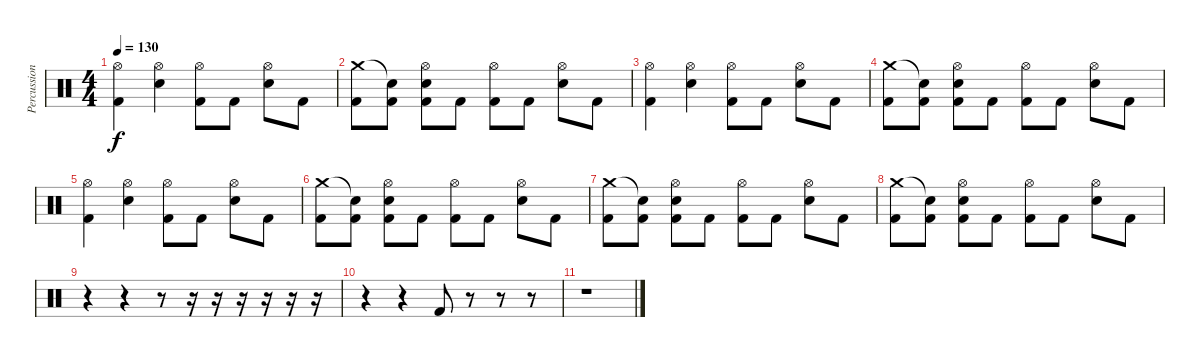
\track ("Percussion" "Percussion") {instrument percussion}
\staff {score}
\articulation defaults
\ts (4 4)
\tempo 130
\clef neutral
\ks c
("Hi-Hat (open)" "Kick (hit) 2").4{dy f} ("Hi-Hat (open)" "Electric Snare (hit)").4 ("Hi-Hat (open)" "Kick (hit) 2").8 "Kick (hit) 2".8 ("Hi-Hat (open)" "Electric Snare (hit)").8 "Kick (hit) 2".8 |
("Crash medium (hit)" "Kick (hit) 2").8 ("Snare (hit)"{t} "Kick (hit) 2").8 ("Hi-Hat (open)" "Electric Snare (hit)" "Kick (hit) 2").8 "Kick (hit) 2".8 ("Hi-Hat (open)" "Kick (hit) 2").8 "Kick (hit) 2".8 ("Hi-Hat (open)" "Electric Snare (hit)").8 "Kick (hit) 2".8 |
("Hi-Hat (open)" "Kick (hit) 2").4 ("Hi-Hat (open)" "Electric Snare (hit)").4 ("Hi-Hat (open)" "Kick (hit) 2").8 "Kick (hit) 2".8 ("Hi-Hat (open)" "Electric Snare (hit)").8 "Kick (hit) 2".8 |
("Crash medium (hit)" "Kick (hit) 2").8 ("Snare (hit)"{t} "Kick (hit) 2").8 ("Hi-Hat (open)" "Electric Snare (hit)" "Kick (hit) 2").8 "Kick (hit) 2".8 ("Hi-Hat (open)" "Kick (hit) 2").8 "Kick (hit) 2".8 ("Hi-Hat (open)" "Electric Snare (hit)").8 "Kick (hit) 2".8 |
("Hi-Hat (open)" "Kick (hit) 2").4 ("Hi-Hat (open)" "Electric Snare (hit)").4 ("Hi-Hat (open)" "Kick (hit) 2").8 "Kick (hit) 2".8 ("Hi-Hat (open)" "Electric Snare (hit)").8 "Kick (hit) 2".8 |
("Crash medium (hit)" "Kick (hit) 2").8 ("Snare (hit)"{t} "Kick (hit) 2").8 ("Hi-Hat (open)" "Electric Snare (hit)" "Kick (hit) 2").8 "Kick (hit) 2".8 ("Hi-Hat (open)" "Kick (hit) 2").8 "Kick (hit) 2".8 ("Hi-Hat (open)" "Electric Snare (hit)").8 "Kick (hit) 2".8 |
("Crash medium (hit)" "Kick (hit) 2").8 ("Snare (hit)"{t} "Kick (hit) 2").8 ("Hi-Hat (open)" "Electric Snare (hit)" "Kick (hit) 2").8 "Kick (hit) 2".8 ("Hi-Hat (open)" "Kick (hit) 2").8 "Kick (hit) 2".8 ("Hi-Hat (open)" "Electric Snare (hit)").8 "Kick (hit) 2".8 |
("Crash medium (hit)" "Kick (hit) 2").8 ("Snare (hit)"{t} "Kick (hit) 2").8 ("Hi-Hat (open)" "Electric Snare (hit)" "Kick (hit) 2").8 "Kick (hit) 2".8 ("Hi-Hat (open)" "Kick (hit) 2").8 "Kick (hit) 2".8 ("Hi-Hat (open)" "Electric Snare (hit)").8 "Kick (hit) 2".8 |
r.4 r.4 r.8 r.16 r.16 r.16 r.16 r.16 r.16 |
r.4 r.4 "Kick (hit) 2".8 r.8 r.8 r.8 |
r.1
